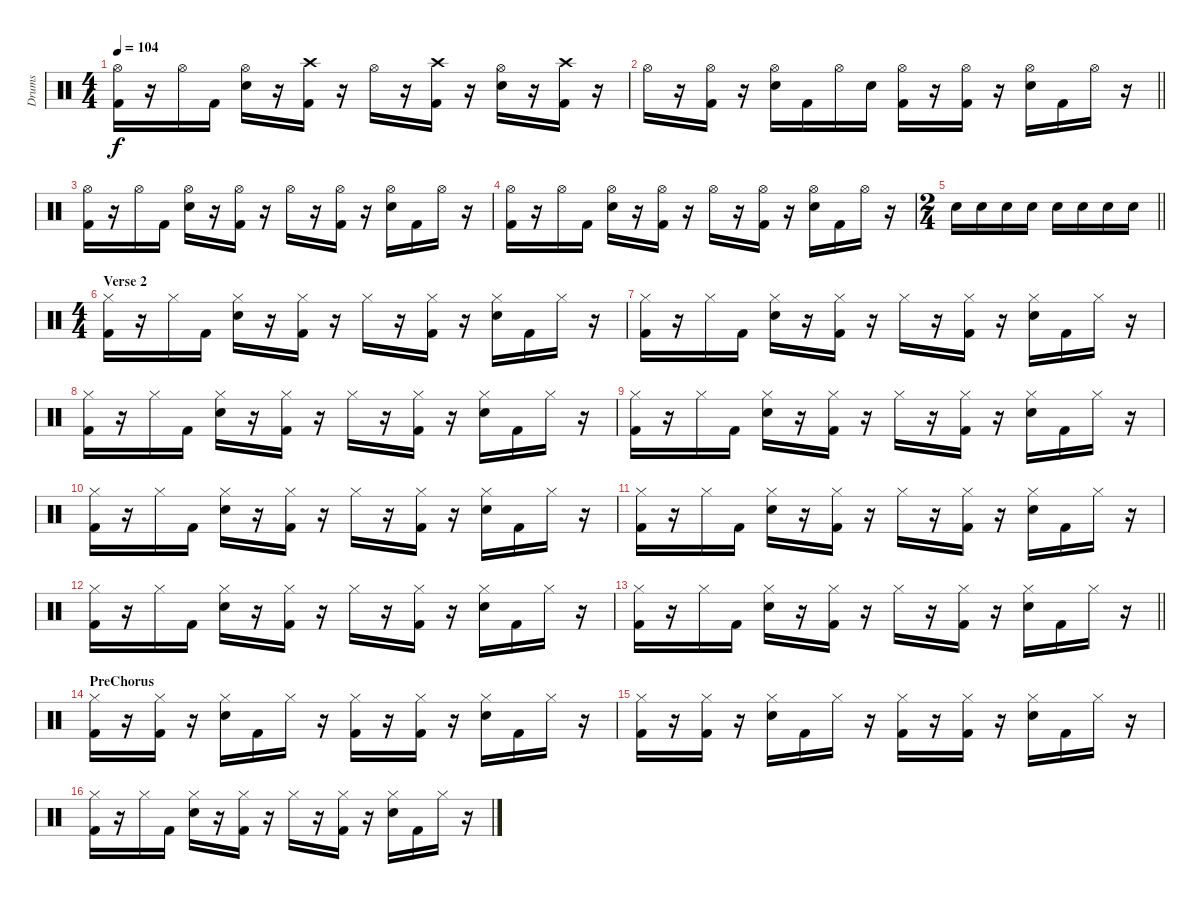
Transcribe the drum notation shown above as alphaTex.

\track ("Drums" "Drums") {instrument percussion}
\staff {score}
\articulation defaults
\ts (4 4)
\tempo 104
\clef neutral
\ks c
("Hi-Hat (open)" "Kick (hit) 2").16{dy f} r.16 "Hi-Hat (open)".16 "Kick (hit) 2".16 ("Hi-Hat (open)" "Snare (hit) 2").16 r.16 ("Crash high (hit)" "Kick (hit) 2").16 r.16 "Hi-Hat (open)".16 r.16 ("Crash high (hit)" "Kick (hit) 2").16 r.16 ("Hi-Hat (open)" "Snare (hit) 2").16 r.16 ("Crash high (hit)" "Kick (hit) 2").16 r.16 |
\barLineRight lightlight "Hi-Hat (open)".16
r.16 ("Hi-Hat (open)" "Kick (hit) 2").16 r.16 ("Hi-Hat (open)" "Snare (hit) 2").16 "Kick (hit) 2".16 "Hi-Hat (open)".16 "Snare (hit) 2".16 ("Hi-Hat (open)" "Kick (hit) 2").16 r.16 ("Hi-Hat (open)" "Kick (hit) 2").16 r.16 ("Hi-Hat (open)" "Snare (hit) 2").16 "Kick (hit) 2".16 "Hi-Hat (open)".16 r.16 |
("Hi-Hat (open)" "Kick (hit) 2").16 r.16 "Hi-Hat (open)".16 "Kick (hit) 2".16 ("Hi-Hat (open)" "Snare (hit) 2").16 r.16 ("Hi-Hat (open)" "Kick (hit) 2").16 r.16 "Hi-Hat (open)".16 r.16 ("Hi-Hat (open)" "Kick (hit) 2").16 r.16 ("Hi-Hat (open)" "Snare (hit) 2").16 "Kick (hit) 2".16 "Hi-Hat (open)".16 r.16 |
("Hi-Hat (open)" "Kick (hit) 2").16 r.16 "Hi-Hat (open)".16 "Kick (hit) 2".16 ("Hi-Hat (open)" "Snare (hit) 2").16 r.16 ("Hi-Hat (open)" "Kick (hit) 2").16 r.16 "Hi-Hat (open)".16 r.16 ("Hi-Hat (open)" "Kick (hit) 2").16 r.16 ("Hi-Hat (open)" "Snare (hit) 2").16 "Kick (hit) 2".16 "Hi-Hat (open)".16 r.16 |
\ts (2 4)
\barLineRight lightlight "Snare (hit) 2".16 "Snare (hit) 2".16 "Snare (hit) 2".16 "Snare (hit) 2".16 "Snare (hit) 2".16 "Snare (hit) 2".16 "Snare (hit) 2".16 "Snare (hit) 2".16
|
\ts (4 4)
\section ("" "Verse 2")
("Hi-Hat (closed)" "Kick (hit) 2").16 r.16 "Hi-Hat (closed)".16 "Kick (hit) 2".16 ("Hi-Hat (closed)" "Snare (hit) 2").16 r.16 ("Hi-Hat (closed)" "Kick (hit) 2").16 r.16 "Hi-Hat (closed)".16 r.16 ("Hi-Hat (closed)" "Kick (hit) 2").16 r.16 ("Hi-Hat (closed)" "Snare (hit) 2").16 "Kick (hit) 2".16 "Hi-Hat (closed)".16 r.16 |
("Hi-Hat (closed)" "Kick (hit) 2").16 r.16 "Hi-Hat (closed)".16 "Kick (hit) 2".16 ("Hi-Hat (closed)" "Snare (hit) 2").16 r.16 ("Hi-Hat (closed)" "Kick (hit) 2").16 r.16 "Hi-Hat (closed)".16 r.16 ("Hi-Hat (closed)" "Kick (hit) 2").16 r.16 ("Hi-Hat (closed)" "Snare (hit) 2").16 "Kick (hit) 2".16 "Hi-Hat (closed)".16 r.16 |
("Hi-Hat (closed)" "Kick (hit) 2").16 r.16 "Hi-Hat (closed)".16 "Kick (hit) 2".16 ("Hi-Hat (closed)" "Snare (hit) 2").16 r.16 ("Hi-Hat (closed)" "Kick (hit) 2").16 r.16 "Hi-Hat (closed)".16 r.16 ("Hi-Hat (closed)" "Kick (hit) 2").16 r.16 ("Hi-Hat (closed)" "Snare (hit) 2").16 "Kick (hit) 2".16 "Hi-Hat (closed)".16 r.16 |
("Hi-Hat (closed)" "Kick (hit) 2").16 r.16 "Hi-Hat (closed)".16 "Kick (hit) 2".16 ("Hi-Hat (closed)" "Snare (hit) 2").16 r.16 ("Hi-Hat (closed)" "Kick (hit) 2").16 r.16 "Hi-Hat (closed)".16 r.16 ("Hi-Hat (closed)" "Kick (hit) 2").16 r.16 ("Hi-Hat (closed)" "Snare (hit) 2").16 "Kick (hit) 2".16 "Hi-Hat (closed)".16 r.16 |
("Hi-Hat (closed)" "Kick (hit) 2").16 r.16 "Hi-Hat (closed)".16 "Kick (hit) 2".16 ("Hi-Hat (closed)" "Snare (hit) 2").16 r.16 ("Hi-Hat (closed)" "Kick (hit) 2").16 r.16 "Hi-Hat (closed)".16 r.16 ("Hi-Hat (closed)" "Kick (hit) 2").16 r.16 ("Hi-Hat (closed)" "Snare (hit) 2").16 "Kick (hit) 2".16 "Hi-Hat (closed)".16 r.16 |
("Hi-Hat (closed)" "Kick (hit) 2").16 r.16 "Hi-Hat (closed)".16 "Kick (hit) 2".16 ("Hi-Hat (closed)" "Snare (hit) 2").16 r.16 ("Hi-Hat (closed)" "Kick (hit) 2").16 r.16 "Hi-Hat (closed)".16 r.16 ("Hi-Hat (closed)" "Kick (hit) 2").16 r.16 ("Hi-Hat (closed)" "Snare (hit) 2").16 "Kick (hit) 2".16 "Hi-Hat (closed)".16 r.16 |
("Hi-Hat (closed)" "Kick (hit) 2").16 r.16 "Hi-Hat (closed)".16 "Kick (hit) 2".16 ("Hi-Hat (closed)" "Snare (hit) 2").16 r.16 ("Hi-Hat (closed)" "Kick (hit) 2").16 r.16 "Hi-Hat (closed)".16 r.16 ("Hi-Hat (closed)" "Kick (hit) 2").16 r.16 ("Hi-Hat (closed)" "Snare (hit) 2").16 "Kick (hit) 2".16 "Hi-Hat (closed)".16 r.16 |
\barLineRight lightlight
("Hi-Hat (closed)" "Kick (hit) 2").16 r.16 "Hi-Hat (closed)".16 "Kick (hit) 2".16 ("Hi-Hat (closed)" "Snare (hit) 2").16 r.16 ("Hi-Hat (closed)" "Kick (hit) 2").16 r.16 "Hi-Hat (closed)".16 r.16 ("Hi-Hat (closed)" "Kick (hit) 2").16 r.16 ("Hi-Hat (closed)" "Snare (hit) 2").16 "Kick (hit) 2".16 "Hi-Hat (closed)".16 r.16 |
\section ("" "PreChorus")
("Hi-Hat (closed)" "Kick (hit) 2").16 r.16 ("Hi-Hat (closed)" "Kick (hit) 2").16 r.16 ("Hi-Hat (closed)" "Snare (hit) 2").16 "Kick (hit) 2".16 "Hi-Hat (closed)".16 r.16 ("Hi-Hat (closed)" "Kick (hit) 2").16 r.16 ("Hi-Hat (closed)" "Kick (hit) 2").16 r.16 ("Hi-Hat (closed)" "Snare (hit) 2").16 "Kick (hit) 2".16 "Hi-Hat (closed)".16 r.16 |
("Hi-Hat (closed)" "Kick (hit) 2").16 r.16 ("Hi-Hat (closed)" "Kick (hit) 2").16 r.16 ("Hi-Hat (closed)" "Snare (hit) 2").16 "Kick (hit) 2".16 "Hi-Hat (closed)".16 r.16 ("Hi-Hat (closed)" "Kick (hit) 2").16 r.16 ("Hi-Hat (closed)" "Kick (hit) 2").16 r.16 ("Hi-Hat (closed)" "Snare (hit) 2").16 "Kick (hit) 2".16 "Hi-Hat (closed)".16 r.16 |
("Hi-Hat (closed)" "Kick (hit) 2").16 r.16 "Hi-Hat (closed)".16 "Kick (hit) 2".16 ("Hi-Hat (closed)" "Snare (hit) 2").16 r.16 ("Hi-Hat (closed)" "Kick (hit) 2").16 r.16 "Hi-Hat (closed)".16 r.16 ("Hi-Hat (closed)" "Kick (hit) 2").16 r.16 ("Hi-Hat (closed)" "Snare (hit) 2").16 "Kick (hit) 2".16 "Hi-Hat (closed)".16 r.16
